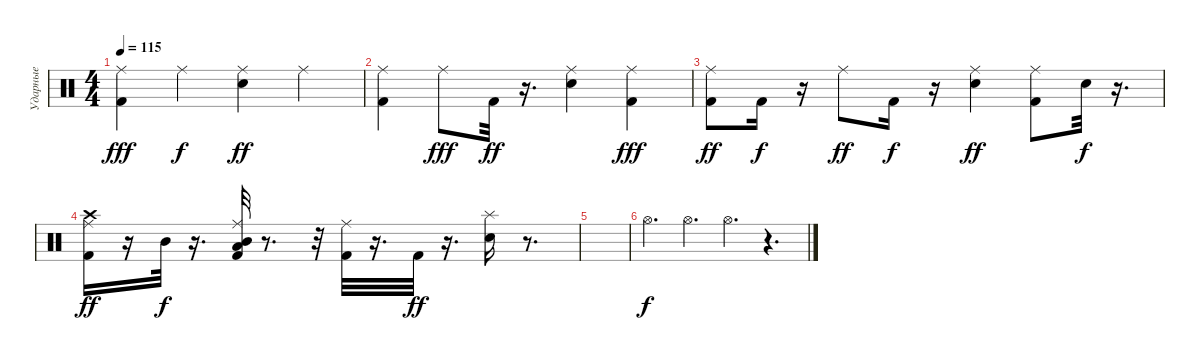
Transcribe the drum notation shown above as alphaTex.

\track ("Ударные" "Ударные") {instrument percussion}
\staff {score}
\articulation defaults
\ts (4 4)
\tempo 115
\clef neutral
\ks c
("Kick (hit) 2" "Ride (middle)").4{dy fff} "Ride (middle)".4{dy f} ("Ride (middle)" "Snare (hit) 2").4{dy ff} "Ride (middle)".4 |
("Kick (hit) 2" "Ride (middle)").4 "Ride (middle)".8{dy fff} "Kick (hit) 2".32{dy ff} r.16{d} ("Snare (hit) 2" "Ride (middle)").4 ("Kick (hit) 2" "Ride (middle)").4{dy fff} |
("Kick (hit) 2" "Ride (middle)").8{dy ff} "Kick (hit) 2".16{dy f} r.16 "Ride (middle)".8{dy ff} "Kick (hit) 2".16{dy f} r.16 ("Snare (hit) 2" "Ride (middle)").4{dy ff} ("Kick (hit) 2" "Ride (middle)").8 "Snare (hit) 2".32{dy f} r.16{d} |
("Crash high (hit)" "Ride (middle)" "Kick (hit) 2").16{dy ff} r.16 "Mid Tom (hit)".32{dy f} r.16{d} ("Ride (middle)" "Low Tom (hit)" "Mid Tom (hit)" "Kick (hit) 2").32 r.8{d} r.32 ("Ride (middle)" "Kick (hit) 2").32 r.16{d} "Kick (hit) 2".32{dy ff} r.16{d} ("Splash (hit)" "Snare (hit) 2").16 r.8{d} |
|
"Hi-Hat (open)".4{d dy f} "Hi-Hat (open)".4{d} "Hi-Hat (open)".4{d} r.4{d}
